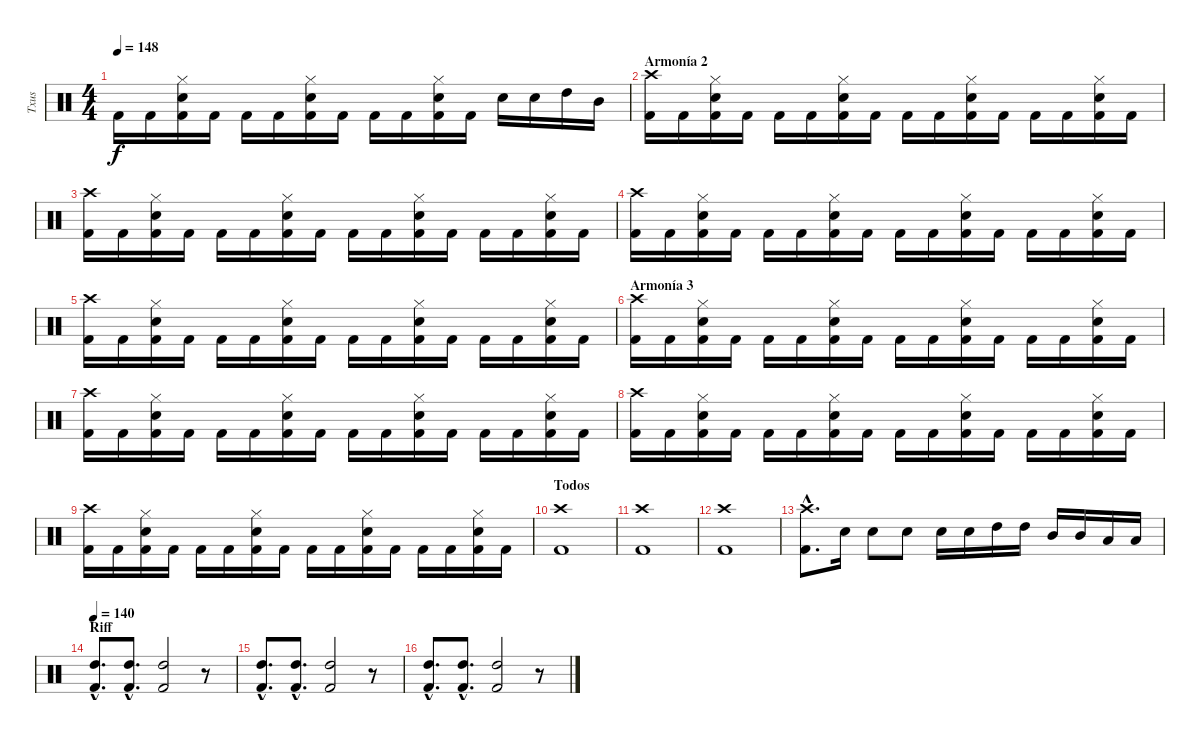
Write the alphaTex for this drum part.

\track ("Txus" "Txus") {instrument percussion}
\staff {score}
\articulation defaults
\ts (4 4)
\tempo 148
\clef neutral
\ks c "Kick (hit) 2".16{dy f} "Kick (hit) 2".16
("Kick (hit) 2" "Electric Snare (hit)" "Hi-Hat (closed)").16 "Kick (hit) 2".16 "Kick (hit) 2".16 "Kick (hit) 2".16 ("Kick (hit) 2" "Electric Snare (hit)" "Hi-Hat (closed)").16 "Kick (hit) 2".16 "Kick (hit) 2".16 "Kick (hit) 2".16 ("Kick (hit) 2" "Electric Snare (hit)" "Hi-Hat (closed)").16 "Kick (hit) 2".16 "Electric Snare (hit)".16 "Electric Snare (hit)".16 "High Tom (hit)".16 "Mid Tom (hit)".16 |
\section ("" "Armonía 2")
("Kick (hit) 2" "Crash high (hit)").16 "Kick (hit) 2".16 ("Kick (hit) 2" "Electric Snare (hit)" "Hi-Hat (closed)").16 "Kick (hit) 2".16 "Kick (hit) 2".16 "Kick (hit) 2".16 ("Kick (hit) 2" "Electric Snare (hit)" "Hi-Hat (closed)").16 "Kick (hit) 2".16 "Kick (hit) 2".16 "Kick (hit) 2".16 ("Kick (hit) 2" "Electric Snare (hit)" "Hi-Hat (closed)").16 "Kick (hit) 2".16 "Kick (hit) 2".16 "Kick (hit) 2".16 ("Kick (hit) 2" "Electric Snare (hit)" "Hi-Hat (closed)").16 "Kick (hit) 2".16 |
("Kick (hit) 2" "Crash high (hit)").16 "Kick (hit) 2".16 ("Kick (hit) 2" "Electric Snare (hit)" "Hi-Hat (closed)").16 "Kick (hit) 2".16 "Kick (hit) 2".16 "Kick (hit) 2".16 ("Kick (hit) 2" "Electric Snare (hit)" "Hi-Hat (closed)").16 "Kick (hit) 2".16 "Kick (hit) 2".16 "Kick (hit) 2".16 ("Kick (hit) 2" "Electric Snare (hit)" "Hi-Hat (closed)").16 "Kick (hit) 2".16 "Kick (hit) 2".16 "Kick (hit) 2".16 ("Kick (hit) 2" "Electric Snare (hit)" "Hi-Hat (closed)").16 "Kick (hit) 2".16 |
("Kick (hit) 2" "Crash high (hit)").16 "Kick (hit) 2".16 ("Kick (hit) 2" "Electric Snare (hit)" "Hi-Hat (closed)").16 "Kick (hit) 2".16 "Kick (hit) 2".16 "Kick (hit) 2".16 ("Kick (hit) 2" "Electric Snare (hit)" "Hi-Hat (closed)").16 "Kick (hit) 2".16 "Kick (hit) 2".16 "Kick (hit) 2".16 ("Kick (hit) 2" "Electric Snare (hit)" "Hi-Hat (closed)").16 "Kick (hit) 2".16 "Kick (hit) 2".16 "Kick (hit) 2".16 ("Kick (hit) 2" "Electric Snare (hit)" "Hi-Hat (closed)").16 "Kick (hit) 2".16 |
("Kick (hit) 2" "Crash high (hit)").16 "Kick (hit) 2".16 ("Kick (hit) 2" "Electric Snare (hit)" "Hi-Hat (closed)").16 "Kick (hit) 2".16 "Kick (hit) 2".16 "Kick (hit) 2".16 ("Kick (hit) 2" "Electric Snare (hit)" "Hi-Hat (closed)").16 "Kick (hit) 2".16 "Kick (hit) 2".16 "Kick (hit) 2".16 ("Kick (hit) 2" "Electric Snare (hit)" "Hi-Hat (closed)").16 "Kick (hit) 2".16 "Kick (hit) 2".16 "Kick (hit) 2".16 ("Kick (hit) 2" "Electric Snare (hit)" "Hi-Hat (closed)").16 "Kick (hit) 2".16 |
\section ("" "Armonía 3")
("Kick (hit) 2" "Crash high (hit)").16 "Kick (hit) 2".16 ("Kick (hit) 2" "Electric Snare (hit)" "Hi-Hat (closed)").16 "Kick (hit) 2".16 "Kick (hit) 2".16 "Kick (hit) 2".16 ("Kick (hit) 2" "Electric Snare (hit)" "Hi-Hat (closed)").16 "Kick (hit) 2".16 "Kick (hit) 2".16 "Kick (hit) 2".16 ("Kick (hit) 2" "Electric Snare (hit)" "Hi-Hat (closed)").16 "Kick (hit) 2".16 "Kick (hit) 2".16 "Kick (hit) 2".16 ("Kick (hit) 2" "Electric Snare (hit)" "Hi-Hat (closed)").16 "Kick (hit) 2".16 |
("Kick (hit) 2" "Crash high (hit)").16 "Kick (hit) 2".16 ("Kick (hit) 2" "Electric Snare (hit)" "Hi-Hat (closed)").16 "Kick (hit) 2".16 "Kick (hit) 2".16 "Kick (hit) 2".16 ("Kick (hit) 2" "Electric Snare (hit)" "Hi-Hat (closed)").16 "Kick (hit) 2".16 "Kick (hit) 2".16 "Kick (hit) 2".16 ("Kick (hit) 2" "Electric Snare (hit)" "Hi-Hat (closed)").16 "Kick (hit) 2".16 "Kick (hit) 2".16 "Kick (hit) 2".16 ("Kick (hit) 2" "Electric Snare (hit)" "Hi-Hat (closed)").16 "Kick (hit) 2".16 |
("Kick (hit) 2" "Crash high (hit)").16 "Kick (hit) 2".16 ("Kick (hit) 2" "Electric Snare (hit)" "Hi-Hat (closed)").16 "Kick (hit) 2".16 "Kick (hit) 2".16 "Kick (hit) 2".16 ("Kick (hit) 2" "Electric Snare (hit)" "Hi-Hat (closed)").16 "Kick (hit) 2".16 "Kick (hit) 2".16 "Kick (hit) 2".16 ("Kick (hit) 2" "Electric Snare (hit)" "Hi-Hat (closed)").16 "Kick (hit) 2".16 "Kick (hit) 2".16 "Kick (hit) 2".16 ("Kick (hit) 2" "Electric Snare (hit)" "Hi-Hat (closed)").16 "Kick (hit) 2".16 |
("Kick (hit) 2" "Crash high (hit)").16 "Kick (hit) 2".16 ("Kick (hit) 2" "Electric Snare (hit)" "Hi-Hat (closed)").16 "Kick (hit) 2".16 "Kick (hit) 2".16 "Kick (hit) 2".16 ("Kick (hit) 2" "Electric Snare (hit)" "Hi-Hat (closed)").16 "Kick (hit) 2".16 "Kick (hit) 2".16 "Kick (hit) 2".16 ("Kick (hit) 2" "Electric Snare (hit)" "Hi-Hat (closed)").16 "Kick (hit) 2".16 "Kick (hit) 2".16 "Kick (hit) 2".16 ("Kick (hit) 2" "Electric Snare (hit)" "Hi-Hat (closed)").16 "Kick (hit) 2".16 |
\section ("" "Todos")
("Kick (hit) 2" "Crash high (hit)").1 |
("Kick (hit) 2" "Crash high (hit)").1 |
("Kick (hit) 2" "Crash high (hit)").1 |
("Kick (hit) 2"{hac} "Crash high (hit)"{hac}).8{d} "Electric Snare (hit)".16 "Electric Snare (hit)".8 "Electric Snare (hit)".8 "Electric Snare (hit)".16 "Electric Snare (hit)".16 "High Tom (hit)".16 "High Tom (hit)".16 "Mid Tom (hit)".16 "Mid Tom (hit)".16 "Low Tom (hit)".16 "Low Tom (hit)".16 |
\section ("" "Riff")
\tempo 140
("Kick (hit) 2"{hac} "High Tom (hit)"{hac}).8{d} ("Kick (hit) 2"{hac} "High Tom (hit)"{hac}).8{d} ("Kick (hit) 2" "High Tom (hit)").2 r.8 |
("Kick (hit) 2"{hac} "High Tom (hit)"{hac}).8{d} ("Kick (hit) 2"{hac} "High Tom (hit)"{hac}).8{d} ("Kick (hit) 2" "High Tom (hit)").2 r.8 |
("Kick (hit) 2"{hac} "High Tom (hit)"{hac}).8{d} ("Kick (hit) 2"{hac} "High Tom (hit)"{hac}).8{d} ("Kick (hit) 2" "High Tom (hit)").2 r.8
